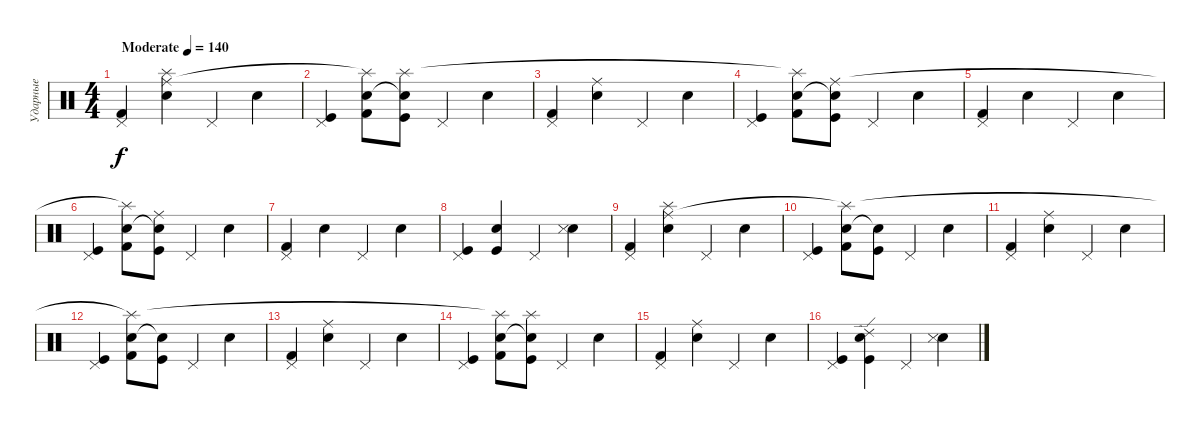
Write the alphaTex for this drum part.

\track ("Ударные" "Ударные") {instrument percussion}
\staff {score}
\articulation defaults
\ts (4 4)
\tempo (140 "Moderate")
\clef neutral
\ks c
("Kick (hit) 2" "Pedal Hi-Hat (hit)").4{dy f} ("Snare (hit) 2" "Splash (hit)" "Ride (middle)").4 "Pedal Hi-Hat (hit)".4 "Snare (hit) 2".4 |
("Kick (hit)" "Pedal Hi-Hat (hit)").4 ("Snare (hit) 2" "Kick (hit) 2" "Splash (hit)"{t}).8 ("Snare (hit) 2"{t} "Kick (hit)" "Splash (hit)").8 "Pedal Hi-Hat (hit)".4 "Snare (hit) 2".4 |
("Kick (hit) 2" "Pedal Hi-Hat (hit)").4 ("Snare (hit) 2" "Ride (middle)").4 "Pedal Hi-Hat (hit)".4 "Snare (hit) 2".4 |
("Kick (hit)" "Pedal Hi-Hat (hit)").4 ("Snare (hit) 2" "Kick (hit) 2" "Splash (hit)"{t}).8 ("Snare (hit) 2"{t} "Kick (hit)" "Ride (middle)").8 "Pedal Hi-Hat (hit)".4 "Snare (hit) 2".4 |
("Kick (hit) 2" "Pedal Hi-Hat (hit)").4 "Snare (hit) 2".4 "Pedal Hi-Hat (hit)".4 "Snare (hit) 2".4 |
("Kick (hit)" "Pedal Hi-Hat (hit)").4 ("Snare (hit) 2" "Kick (hit) 2" "Splash (hit)"{t}).8 ("Snare (hit) 2"{t} "Kick (hit)" "Ride (middle)").8 "Pedal Hi-Hat (hit)".4 "Snare (hit) 2".4 |
("Kick (hit) 2" "Pedal Hi-Hat (hit)").4 "Snare (hit) 2".4 "Pedal Hi-Hat (hit)".4 "Snare (hit) 2".4 |
("Kick (hit)" "Pedal Hi-Hat (hit)").4 ("Snare (hit) 2" "Kick (hit)").4 "Pedal Hi-Hat (hit)".4 ("Snare (hit) 2" "Metronome (hit)").4 |
("Kick (hit) 2" "Pedal Hi-Hat (hit)").4 ("Snare (hit) 2" "Splash (hit)" "Ride (middle)").4 "Pedal Hi-Hat (hit)".4 "Snare (hit) 2".4 |
("Kick (hit)" "Pedal Hi-Hat (hit)").4 ("Snare (hit) 2" "Kick (hit) 2" "Splash (hit)"{t}).8 ("Snare (hit) 2"{t} "Kick (hit)").8 "Pedal Hi-Hat (hit)".4 "Snare (hit) 2".4 |
("Kick (hit) 2" "Pedal Hi-Hat (hit)").4 ("Snare (hit) 2" "Ride (middle)").4 "Pedal Hi-Hat (hit)".4 "Snare (hit) 2".4 |
("Kick (hit)" "Pedal Hi-Hat (hit)").4 ("Snare (hit) 2" "Kick (hit) 2" "Splash (hit)"{t}).8 ("Snare (hit) 2"{t} "Kick (hit)").8 "Pedal Hi-Hat (hit)".4 "Snare (hit) 2".4 |
("Kick (hit) 2" "Pedal Hi-Hat (hit)").4 ("Snare (hit) 2" "Ride (middle)").4 "Pedal Hi-Hat (hit)".4 "Snare (hit) 2".4 |
("Kick (hit)" "Pedal Hi-Hat (hit)").4 ("Snare (hit) 2" "Kick (hit) 2" "Splash (hit)"{t}).8 ("Snare (hit) 2"{t} "Kick (hit)" "Splash (hit)").8 "Pedal Hi-Hat (hit)".4 "Snare (hit) 2".4 |
("Kick (hit) 2" "Pedal Hi-Hat (hit)").4 ("Snare (hit) 2" "Ride (middle)").4 "Pedal Hi-Hat (hit)".4 "Snare (hit) 2".4 |
("Kick (hit)" "Pedal Hi-Hat (hit)").4 ("Snare (hit) 2" "Kick (hit)" "Ride (edge) 2").4 "Pedal Hi-Hat (hit)".4 ("Snare (hit) 2" "Metronome (hit)").4
